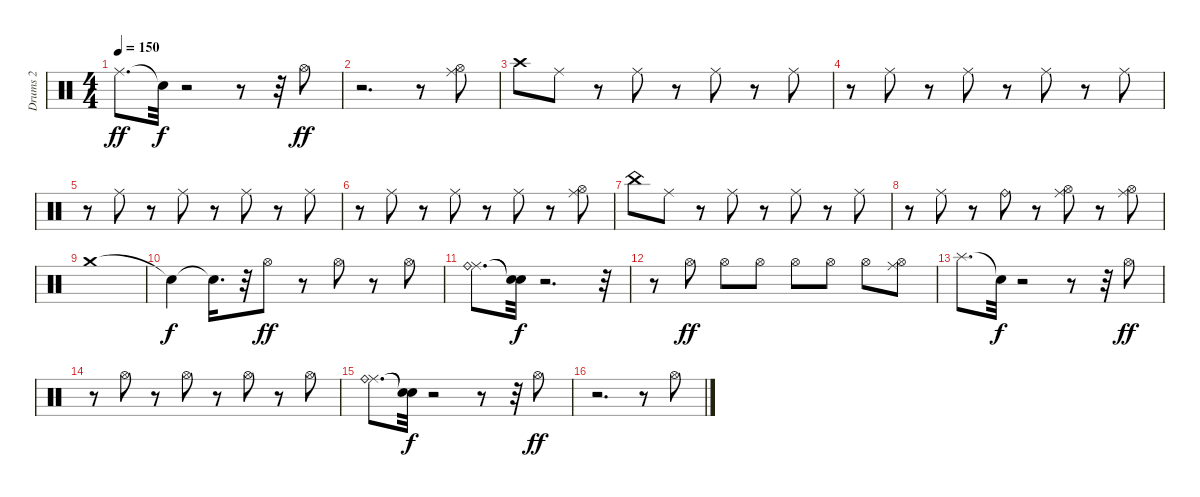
\track ("Drums 2" "Drums 2") {instrument percussion}
\staff {score}
\articulation defaults
\ts (4 4)
\tempo 150
\clef neutral
\ks c "Ride (middle)".8{d dy ff} "Snare (hit)"{t}.32{dy f}
r.2 r.8 r.32 "Hi-Hat (open)".8{dy ff} |
r.2{d} r.8 ("Hi-Hat (open)" "Ride (middle)").8 |
"Crash high (hit)".8 "Ride (middle)".8 r.8 "Ride (middle)".8 r.8 "Ride (middle)".8 r.8 "Ride (middle)".8 |
r.8 "Ride (middle)".8 r.8 "Ride (middle)".8 r.8 "Ride (middle)".8 r.8 "Ride (middle)".8 |
r.8 "Ride (middle)".8 r.8 "Ride (middle)".8 r.8 "Ride (middle)".8 r.8 "Ride (middle)".8 |
r.8 "Ride (middle)".8 r.8 "Ride (middle)".8 r.8 "Ride (middle)".8 r.8 ("Hi-Hat (open)" "Ride (middle)").8 |
"China (hit)".8 "Ride (middle)".8 r.8 "Ride (middle)".8 r.8 "Ride (middle)".8 r.8 "Ride (middle)".8 |
r.8 "Ride (middle)".8 r.8 "Ride (bell)".8 r.8 ("Hi-Hat (open)" "Ride (middle)").8 r.8 ("Hi-Hat (open)" "Ride (middle)").8 |
"Crash medium (hit)".1 |
"Snare (hit)"{t}.4{dy f} "Snare (hit)"{t}.16{d} r.32 "Hi-Hat (open)".8{dy ff} r.8 "Hi-Hat (open)".8 r.8 "Hi-Hat (open)".8 |
("Ride (middle)" "Ride (bell)").8{d} ("Snare (hit)"{t} "Snare (hit)"{t}).32{dy f} r.2{d} r.32 |
r.8 "Hi-Hat (open)".8{dy ff} "Hi-Hat (open)".8 "Hi-Hat (open)".8 "Hi-Hat (open)".8 "Hi-Hat (open)".8 "Hi-Hat (open)".8 ("Hi-Hat (open)" "Ride (middle)").8 |
"Splash (hit)".8{d} "Snare (hit)"{t}.32{dy f} r.2 r.8 r.32 "Hi-Hat (open)".8{dy ff} |
r.8 "Hi-Hat (open)".8 r.8 "Hi-Hat (open)".8 r.8 "Hi-Hat (open)".8 r.8 "Hi-Hat (open)".8 |
("Ride (middle)" "Ride (bell)").8{d} ("Snare (hit)"{t} "Snare (hit)"{t}).32{dy f} r.2 r.8 r.32 "Hi-Hat (open)".8{dy ff} |
r.2{d} r.8 "Hi-Hat (open)".8
